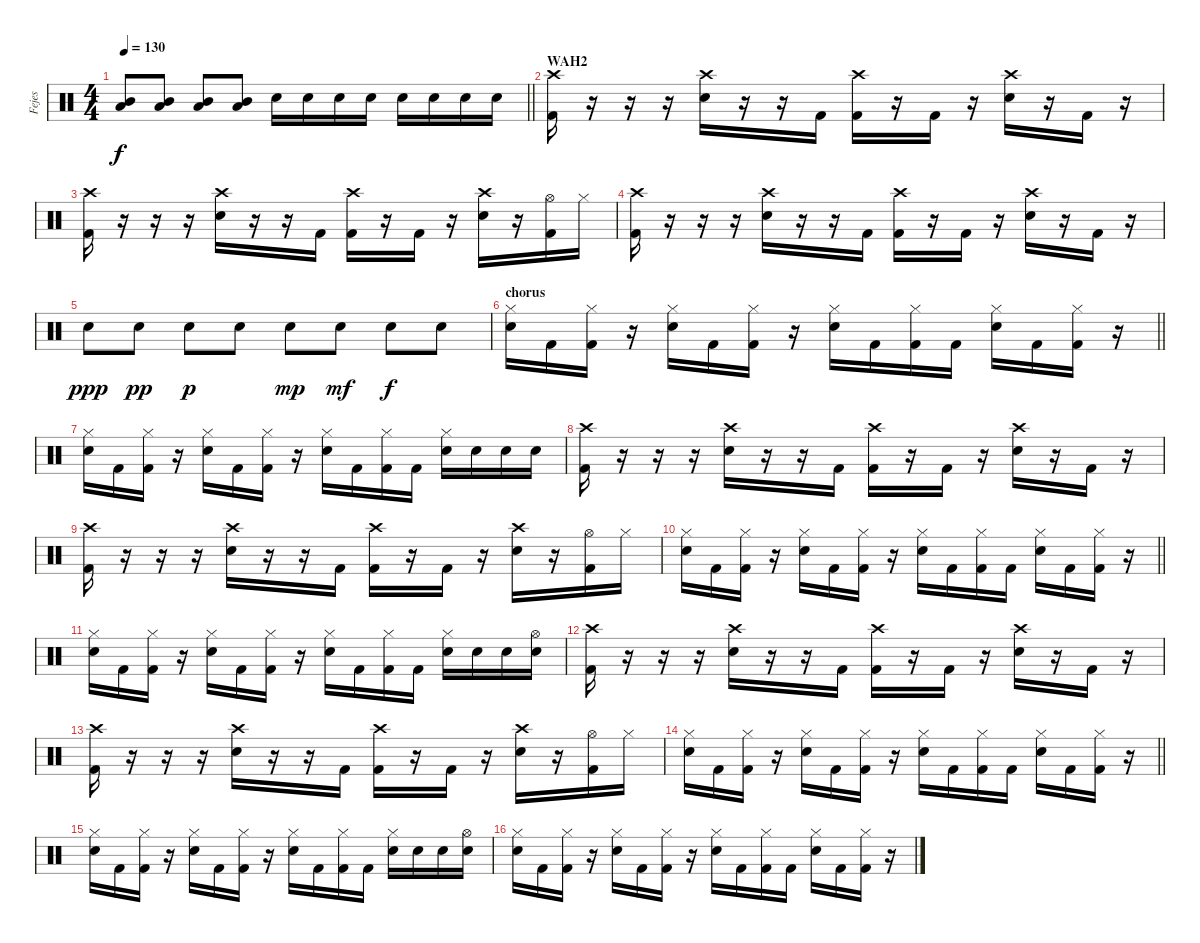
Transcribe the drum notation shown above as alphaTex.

\track ("Fejes" "Fejes") {instrument percussion}
\staff {score}
\articulation defaults
\ts (4 4)
\tempo 130
\clef neutral
\barLineRight lightlight
\ks c
("Mid Tom (hit)" "Low Tom (hit)").8{dy f} ("Mid Tom (hit)" "Low Tom (hit)").8 ("Mid Tom (hit)" "Low Tom (hit)").8 ("Mid Tom (hit)" "Low Tom (hit)").8 "Snare (hit) 2".16 "Snare (hit) 2".16 "Snare (hit) 2".16 "Snare (hit) 2".16 "Snare (hit) 2".16 "Snare (hit) 2".16 "Snare (hit) 2".16 "Snare (hit) 2".16 |
\section ("" "WAH2")
("Crash high (hit)" "Kick (hit) 2").16 r.16 r.16 r.16 ("Crash high (hit)" "Snare (hit) 2").16 r.16 r.16 "Kick (hit) 2".16 ("Crash high (hit)" "Kick (hit) 2").16 r.16 "Kick (hit) 2".16 r.16 ("Crash high (hit)" "Snare (hit) 2").16 r.16 "Kick (hit) 2".16 r.16 |
("Crash high (hit)" "Kick (hit) 2").16 r.16 r.16 r.16 ("Crash high (hit)" "Snare (hit) 2").16 r.16 r.16 "Kick (hit) 2".16 ("Crash high (hit)" "Kick (hit) 2").16 r.16 "Kick (hit) 2".16 r.16 ("Crash high (hit)" "Snare (hit) 2").16 r.16 ("Hi-Hat (open)" "Kick (hit) 2").16 "Hi-Hat (closed)".16 |
("Crash high (hit)" "Kick (hit) 2").16 r.16 r.16 r.16 ("Crash high (hit)" "Snare (hit) 2").16 r.16 r.16 "Kick (hit) 2".16 ("Crash high (hit)" "Kick (hit) 2").16 r.16 "Kick (hit) 2".16 r.16 ("Crash high (hit)" "Snare (hit) 2").16 r.16 "Kick (hit) 2".16 r.16 |
"Snare (hit) 2".8{dy ppp} "Snare (hit) 2".8{dy pp} "Snare (hit) 2".8{dy p} "Snare (hit) 2".8 "Snare (hit) 2".8{dy mp} "Snare (hit) 2".8{dy mf} "Snare (hit) 2".8{dy f} "Snare (hit) 2".8 |
\section ("" "chorus")
\barLineRight lightlight
("Hi-Hat (closed)" "Snare (hit) 2").16 "Kick (hit) 2".16 ("Hi-Hat (closed)" "Kick (hit) 2").16 r.16 ("Hi-Hat (closed)" "Snare (hit) 2").16 "Kick (hit) 2".16 ("Hi-Hat (closed)" "Kick (hit) 2").16 r.16 ("Hi-Hat (closed)" "Snare (hit) 2").16 "Kick (hit) 2".16 ("Hi-Hat (closed)" "Kick (hit) 2").16 "Kick (hit) 2".16 ("Hi-Hat (closed)" "Snare (hit) 2").16 "Kick (hit) 2".16 ("Hi-Hat (closed)" "Kick (hit) 2").16 r.16 |
("Hi-Hat (closed)" "Snare (hit) 2").16 "Kick (hit) 2".16 ("Hi-Hat (closed)" "Kick (hit) 2").16 r.16 ("Hi-Hat (closed)" "Snare (hit) 2").16 "Kick (hit) 2".16 ("Hi-Hat (closed)" "Kick (hit) 2").16 r.16 ("Hi-Hat (closed)" "Snare (hit) 2").16 "Kick (hit) 2".16 ("Hi-Hat (closed)" "Kick (hit) 2").16 "Kick (hit) 2".16 ("Hi-Hat (closed)" "Snare (hit) 2").16 "Snare (hit) 2".16 "Snare (hit) 2".16 "Snare (hit) 2".16 |
("Crash high (hit)" "Kick (hit) 2").16 r.16 r.16 r.16 ("Crash high (hit)" "Snare (hit) 2").16 r.16 r.16 "Kick (hit) 2".16 ("Crash high (hit)" "Kick (hit) 2").16 r.16 "Kick (hit) 2".16 r.16 ("Crash high (hit)" "Snare (hit) 2").16 r.16 "Kick (hit) 2".16 r.16 |
("Crash high (hit)" "Kick (hit) 2").16 r.16 r.16 r.16 ("Crash high (hit)" "Snare (hit) 2").16 r.16 r.16 "Kick (hit) 2".16 ("Crash high (hit)" "Kick (hit) 2").16 r.16 "Kick (hit) 2".16 r.16 ("Crash high (hit)" "Snare (hit) 2").16 r.16 ("Hi-Hat (open)" "Kick (hit) 2").16 "Hi-Hat (closed)".16 |
\barLineRight lightlight
("Hi-Hat (closed)" "Snare (hit) 2").16 "Kick (hit) 2".16 ("Hi-Hat (closed)" "Kick (hit) 2").16 r.16 ("Hi-Hat (closed)" "Snare (hit) 2").16 "Kick (hit) 2".16 ("Hi-Hat (closed)" "Kick (hit) 2").16 r.16 ("Hi-Hat (closed)" "Snare (hit) 2").16 "Kick (hit) 2".16 ("Hi-Hat (closed)" "Kick (hit) 2").16 "Kick (hit) 2".16 ("Hi-Hat (closed)" "Snare (hit) 2").16 "Kick (hit) 2".16 ("Hi-Hat (closed)" "Kick (hit) 2").16 r.16 |
("Hi-Hat (closed)" "Snare (hit) 2").16 "Kick (hit) 2".16 ("Hi-Hat (closed)" "Kick (hit) 2").16 r.16 ("Hi-Hat (closed)" "Snare (hit) 2").16 "Kick (hit) 2".16 ("Hi-Hat (closed)" "Kick (hit) 2").16 r.16 ("Hi-Hat (closed)" "Snare (hit) 2").16 "Kick (hit) 2".16 ("Hi-Hat (closed)" "Kick (hit) 2").16 "Kick (hit) 2".16 ("Hi-Hat (closed)" "Snare (hit) 2").16 "Snare (hit) 2".16 "Snare (hit) 2".16 ("Hi-Hat (open)" "Snare (hit) 2").16 |
("Crash high (hit)" "Kick (hit) 2").16 r.16 r.16 r.16 ("Crash high (hit)" "Snare (hit) 2").16 r.16 r.16 "Kick (hit) 2".16 ("Crash high (hit)" "Kick (hit) 2").16 r.16 "Kick (hit) 2".16 r.16 ("Crash high (hit)" "Snare (hit) 2").16 r.16 "Kick (hit) 2".16 r.16 |
("Crash high (hit)" "Kick (hit) 2").16 r.16 r.16 r.16 ("Crash high (hit)" "Snare (hit) 2").16 r.16 r.16 "Kick (hit) 2".16 ("Crash high (hit)" "Kick (hit) 2").16 r.16 "Kick (hit) 2".16 r.16 ("Crash high (hit)" "Snare (hit) 2").16 r.16 ("Hi-Hat (open)" "Kick (hit) 2").16 "Hi-Hat (closed)".16 |
\barLineRight lightlight
("Hi-Hat (closed)" "Snare (hit) 2").16 "Kick (hit) 2".16 ("Hi-Hat (closed)" "Kick (hit) 2").16 r.16 ("Hi-Hat (closed)" "Snare (hit) 2").16 "Kick (hit) 2".16 ("Hi-Hat (closed)" "Kick (hit) 2").16 r.16 ("Hi-Hat (closed)" "Snare (hit) 2").16 "Kick (hit) 2".16 ("Hi-Hat (closed)" "Kick (hit) 2").16 "Kick (hit) 2".16 ("Hi-Hat (closed)" "Snare (hit) 2").16 "Kick (hit) 2".16 ("Hi-Hat (closed)" "Kick (hit) 2").16 r.16 |
("Hi-Hat (closed)" "Snare (hit) 2").16 "Kick (hit) 2".16 ("Hi-Hat (closed)" "Kick (hit) 2").16 r.16 ("Hi-Hat (closed)" "Snare (hit) 2").16 "Kick (hit) 2".16 ("Hi-Hat (closed)" "Kick (hit) 2").16 r.16 ("Hi-Hat (closed)" "Snare (hit) 2").16 "Kick (hit) 2".16 ("Hi-Hat (closed)" "Kick (hit) 2").16 "Kick (hit) 2".16 ("Hi-Hat (closed)" "Snare (hit) 2").16 "Snare (hit) 2".16 "Snare (hit) 2".16 ("Hi-Hat (open)" "Snare (hit) 2").16 |
("Hi-Hat (closed)" "Snare (hit) 2").16 "Kick (hit) 2".16 ("Hi-Hat (closed)" "Kick (hit) 2").16 r.16 ("Hi-Hat (closed)" "Snare (hit) 2").16 "Kick (hit) 2".16 ("Hi-Hat (closed)" "Kick (hit) 2").16 r.16 ("Hi-Hat (closed)" "Snare (hit) 2").16 "Kick (hit) 2".16 ("Hi-Hat (closed)" "Kick (hit) 2").16 "Kick (hit) 2".16 ("Hi-Hat (closed)" "Snare (hit) 2").16 "Kick (hit) 2".16 ("Hi-Hat (closed)" "Kick (hit) 2").16 r.16
